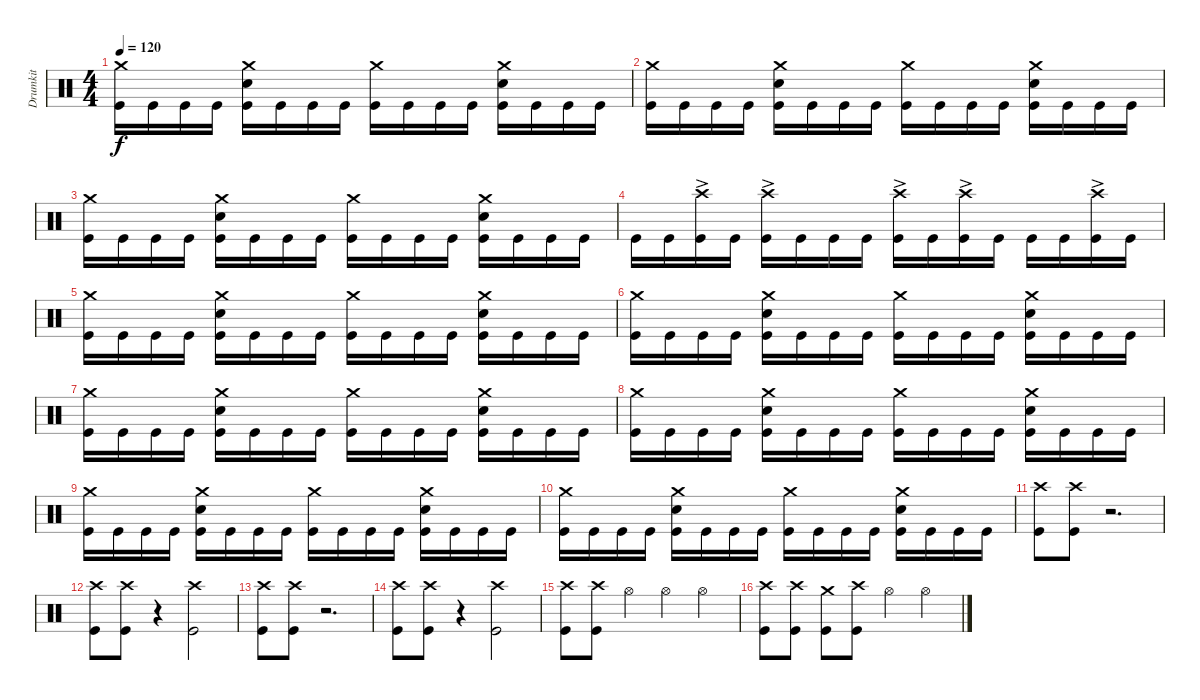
\track ("Drumkit" "Drumkit") {instrument percussion}
\staff {score}
\articulation defaults
\ts (4 4)
\tempo 120
\clef neutral
\ks c
("Crash medium (hit)" "Kick (hit)").16{dy f} "Kick (hit)".16 "Kick (hit)".16 "Kick (hit)".16 ("Crash medium (hit)" "Snare (hit) 2" "Kick (hit)").16 "Kick (hit)".16 "Kick (hit)".16 "Kick (hit)".16 ("Crash medium (hit)" "Kick (hit)").16 "Kick (hit)".16 "Kick (hit)".16 "Kick (hit)".16 ("Crash medium (hit)" "Snare (hit) 2" "Kick (hit)").16 "Kick (hit)".16 "Kick (hit)".16 "Kick (hit)".16 |
("Crash medium (hit)" "Kick (hit)").16 "Kick (hit)".16 "Kick (hit)".16 "Kick (hit)".16 ("Crash medium (hit)" "Snare (hit) 2" "Kick (hit)").16 "Kick (hit)".16 "Kick (hit)".16 "Kick (hit)".16 ("Crash medium (hit)" "Kick (hit)").16 "Kick (hit)".16 "Kick (hit)".16 "Kick (hit)".16 ("Crash medium (hit)" "Snare (hit) 2" "Kick (hit)").16 "Kick (hit)".16 "Kick (hit)".16 "Kick (hit)".16 |
("Crash medium (hit)" "Kick (hit)").16 "Kick (hit)".16 "Kick (hit)".16 "Kick (hit)".16 ("Crash medium (hit)" "Snare (hit) 2" "Kick (hit)").16 "Kick (hit)".16 "Kick (hit)".16 "Kick (hit)".16 ("Crash medium (hit)" "Kick (hit)").16 "Kick (hit)".16 "Kick (hit)".16 "Kick (hit)".16 ("Crash medium (hit)" "Snare (hit) 2" "Kick (hit)").16 "Kick (hit)".16 "Kick (hit)".16 "Kick (hit)".16 |
"Kick (hit)".16 "Kick (hit)".16 ("Crash high (hit)"{ac} "Kick (hit)").16 "Kick (hit)".16 ("Crash high (hit)"{ac} "Kick (hit)").16 "Kick (hit)".16 "Kick (hit)".16 "Kick (hit)".16 ("Crash high (hit)"{ac} "Kick (hit)").16 "Kick (hit)".16 ("Crash high (hit)"{ac} "Kick (hit)").16 "Kick (hit)".16 "Kick (hit)".16 "Kick (hit)".16 ("Crash high (hit)"{ac} "Kick (hit)").16 "Kick (hit)".16 |
("Crash medium (hit)" "Kick (hit)").16 "Kick (hit)".16 "Kick (hit)".16 "Kick (hit)".16 ("Crash medium (hit)" "Snare (hit) 2" "Kick (hit)").16 "Kick (hit)".16 "Kick (hit)".16 "Kick (hit)".16 ("Crash medium (hit)" "Kick (hit)").16 "Kick (hit)".16 "Kick (hit)".16 "Kick (hit)".16 ("Crash medium (hit)" "Snare (hit) 2" "Kick (hit)").16 "Kick (hit)".16 "Kick (hit)".16 "Kick (hit)".16 |
("Crash medium (hit)" "Kick (hit)").16 "Kick (hit)".16 "Kick (hit)".16 "Kick (hit)".16 ("Crash medium (hit)" "Snare (hit) 2" "Kick (hit)").16 "Kick (hit)".16 "Kick (hit)".16 "Kick (hit)".16 ("Crash medium (hit)" "Kick (hit)").16 "Kick (hit)".16 "Kick (hit)".16 "Kick (hit)".16 ("Crash medium (hit)" "Snare (hit) 2" "Kick (hit)").16 "Kick (hit)".16 "Kick (hit)".16 "Kick (hit)".16 |
("Crash medium (hit)" "Kick (hit)").16 "Kick (hit)".16 "Kick (hit)".16 "Kick (hit)".16 ("Crash medium (hit)" "Snare (hit) 2" "Kick (hit)").16 "Kick (hit)".16 "Kick (hit)".16 "Kick (hit)".16 ("Crash medium (hit)" "Kick (hit)").16 "Kick (hit)".16 "Kick (hit)".16 "Kick (hit)".16 ("Crash medium (hit)" "Snare (hit) 2" "Kick (hit)").16 "Kick (hit)".16 "Kick (hit)".16 "Kick (hit)".16 |
("Crash medium (hit)" "Kick (hit)").16 "Kick (hit)".16 "Kick (hit)".16 "Kick (hit)".16 ("Crash medium (hit)" "Snare (hit) 2" "Kick (hit)").16 "Kick (hit)".16 "Kick (hit)".16 "Kick (hit)".16 ("Crash medium (hit)" "Kick (hit)").16 "Kick (hit)".16 "Kick (hit)".16 "Kick (hit)".16 ("Crash medium (hit)" "Snare (hit) 2" "Kick (hit)").16 "Kick (hit)".16 "Kick (hit)".16 "Kick (hit)".16 |
("Crash medium (hit)" "Kick (hit)").16 "Kick (hit)".16 "Kick (hit)".16 "Kick (hit)".16 ("Crash medium (hit)" "Snare (hit) 2" "Kick (hit)").16 "Kick (hit)".16 "Kick (hit)".16 "Kick (hit)".16 ("Crash medium (hit)" "Kick (hit)").16 "Kick (hit)".16 "Kick (hit)".16 "Kick (hit)".16 ("Crash medium (hit)" "Snare (hit) 2" "Kick (hit)").16 "Kick (hit)".16 "Kick (hit)".16 "Kick (hit)".16 |
("Crash medium (hit)" "Kick (hit)").16 "Kick (hit)".16 "Kick (hit)".16 "Kick (hit)".16 ("Crash medium (hit)" "Snare (hit) 2" "Kick (hit)").16 "Kick (hit)".16 "Kick (hit)".16 "Kick (hit)".16 ("Crash medium (hit)" "Kick (hit)").16 "Kick (hit)".16 "Kick (hit)".16 "Kick (hit)".16 ("Crash medium (hit)" "Snare (hit) 2" "Kick (hit)").16 "Kick (hit)".16 "Kick (hit)".16 "Kick (hit)".16 |
("Crash high (hit)" "Kick (hit)").8 ("Crash high (hit)" "Kick (hit)").8 r.2{d} |
("Crash high (hit)" "Kick (hit)").8 ("Crash high (hit)" "Kick (hit)").8 r.4 ("Crash high (hit)" "Kick (hit)").2 |
("Crash high (hit)" "Kick (hit)").8 ("Crash high (hit)" "Kick (hit)").8 r.2{d} |
("Crash high (hit)" "Kick (hit)").8 ("Crash high (hit)" "Kick (hit)").8 r.4 ("Crash high (hit)" "Kick (hit)").2 |
("Crash high (hit)" "Kick (hit)").8 ("Crash high (hit)" "Kick (hit)").8 "Hi-Hat (open)".4 "Hi-Hat (open)".4 "Hi-Hat (open)".4 |
("Crash high (hit)" "Kick (hit)").8 ("Crash high (hit)" "Kick (hit)").8 ("Crash medium (hit)" "Kick (hit)").8 ("Crash high (hit)" "Kick (hit)").8 "Hi-Hat (open)".4 "Hi-Hat (open)".4
